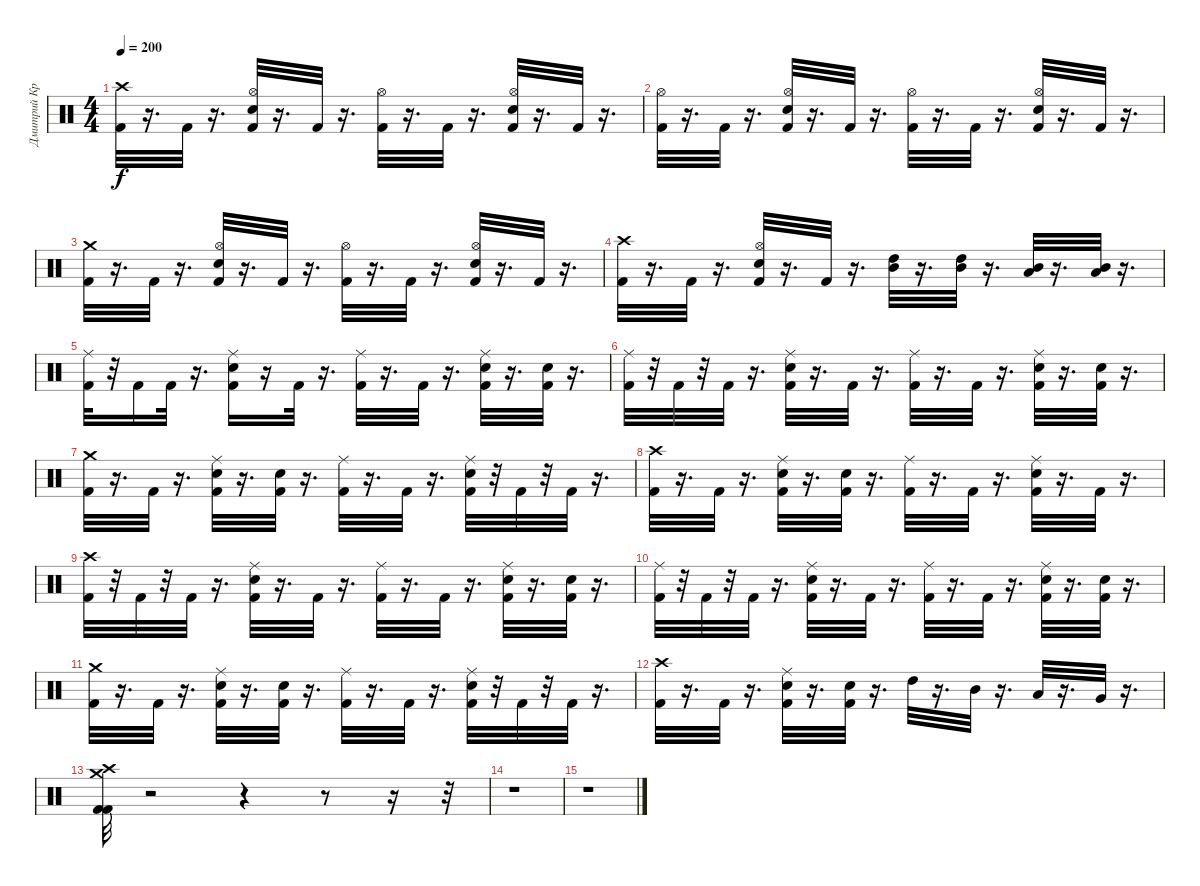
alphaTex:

\track ("Дмитрий Кривенков" "Дмитрий Кр") {instrument percussion}
\staff {score}
\articulation defaults
\ts (4 4)
\tempo 200
\clef neutral
\ks c
("Crash high (hit)" "Kick (hit) 2").32{dy f} r.16{d} "Kick (hit) 2".32 r.16{d} ("Hi-Hat (open)" "Electric Snare (hit)" "Kick (hit) 2").32 r.16{d} "Kick (hit) 2".32 r.16{d} ("Hi-Hat (open)" "Kick (hit) 2").32 r.16{d} "Kick (hit) 2".32 r.16{d} ("Hi-Hat (open)" "Electric Snare (hit)" "Kick (hit) 2").32 r.16{d} "Kick (hit) 2".32 r.16{d} |
("Hi-Hat (open)" "Kick (hit) 2").32 r.16{d} "Kick (hit) 2".32 r.16{d} ("Hi-Hat (open)" "Electric Snare (hit)" "Kick (hit) 2").32 r.16{d} "Kick (hit) 2".32 r.16{d} ("Hi-Hat (open)" "Kick (hit) 2").32 r.16{d} "Kick (hit) 2".32 r.16{d} ("Hi-Hat (open)" "Electric Snare (hit)" "Kick (hit) 2").32 r.16{d} "Kick (hit) 2".32 r.16{d} |
("Kick (hit) 2" "Crash medium (hit)").32 r.16{d} "Kick (hit) 2".32 r.16{d} ("Kick (hit) 2" "Electric Snare (hit)" "Hi-Hat (open)").32 r.16{d} "Kick (hit) 2".32 r.16{d} ("Kick (hit) 2" "Hi-Hat (open)").32 r.16{d} "Kick (hit) 2".32 r.16{d} ("Kick (hit) 2" "Hi-Hat (open)" "Electric Snare (hit)").32 r.16{d} "Kick (hit) 2".32 r.16{d} |
("Kick (hit) 2" "Crash high (hit)").32 r.16{d} "Kick (hit) 2".32 r.16{d} ("Kick (hit) 2" "Electric Snare (hit)" "Hi-Hat (open)").32 r.16{d} "Kick (hit) 2".32 r.16{d} ("Mid Tom (hit)" "High Tom (hit)").32 r.16{d} ("Mid Tom (hit)" "High Tom (hit)").32 r.16{d} ("Low Tom (hit)" "Mid Tom (hit)").32 r.16{d} ("Low Tom (hit)" "Mid Tom (hit)").32 r.16{d} |
("Ride (middle)" "Kick (hit) 2").32 r.32 "Kick (hit) 2".16 "Kick (hit) 2".32 r.16{d} ("Ride (middle)" "Electric Snare (hit)" "Kick (hit) 2").16 r.16 "Kick (hit) 2".32 r.16{d} ("Ride (middle)" "Kick (hit) 2").32 r.16{d} "Kick (hit) 2".32 r.16{d} ("Kick (hit) 2" "Ride (middle)" "Electric Snare (hit)").32 r.16{d} ("Kick (hit) 2" "Electric Snare (hit)").32 r.16{d} |
("Ride (middle)" "Kick (hit) 2").32 r.32 "Kick (hit) 2".32 r.32 "Kick (hit) 2".32 r.16{d} ("Ride (middle)" "Electric Snare (hit)" "Kick (hit) 2").32 r.16{d} "Kick (hit) 2".32 r.16{d} ("Ride (middle)" "Kick (hit) 2").32 r.16{d} "Kick (hit) 2".32 r.16{d} ("Ride (middle)" "Electric Snare (hit)" "Kick (hit) 2").32 r.16{d} ("Electric Snare (hit)" "Kick (hit) 2").32 r.16{d} |
("Kick (hit) 2" "Crash medium (hit)").32 r.16{d} "Kick (hit) 2".32 r.16{d} ("Kick (hit) 2" "Electric Snare (hit)" "Ride (middle)").32 r.16{d} ("Electric Snare (hit)" "Kick (hit) 2").32 r.16{d} ("Kick (hit) 2" "Ride (middle)").32 r.16{d} "Kick (hit) 2".32 r.16{d} ("Kick (hit) 2" "Ride (middle)" "Electric Snare (hit)").32 r.32 "Kick (hit) 2".32 r.32 "Kick (hit) 2".32 r.16{d} |
("Kick (hit) 2" "Crash high (hit)").32 r.16{d} "Kick (hit) 2".32 r.16{d} ("Kick (hit) 2" "Electric Snare (hit)" "Ride (middle)").32 r.16{d} ("Electric Snare (hit)" "Kick (hit) 2").32 r.16{d} ("Ride (middle)" "Kick (hit) 2").32 r.16{d} "Kick (hit) 2".32 r.16{d} ("Kick (hit) 2" "Electric Snare (hit)" "Ride (middle)").32 r.16{d} "Kick (hit) 2".32 r.16{d} |
("Crash high (hit)" "Kick (hit) 2").32 r.32 "Kick (hit) 2".32 r.32 "Kick (hit) 2".32 r.16{d} ("Ride (middle)" "Electric Snare (hit)" "Kick (hit) 2").32 r.16{d} "Kick (hit) 2".32 r.16{d} ("Ride (middle)" "Kick (hit) 2").32 r.16{d} "Kick (hit) 2".32 r.16{d} ("Ride (middle)" "Electric Snare (hit)" "Kick (hit) 2").32 r.16{d} ("Electric Snare (hit)" "Kick (hit) 2").32 r.16{d} |
("Ride (middle)" "Kick (hit) 2").32 r.32 "Kick (hit) 2".32 r.32 "Kick (hit) 2".32 r.16{d} ("Ride (middle)" "Electric Snare (hit)" "Kick (hit) 2").32 r.16{d} "Kick (hit) 2".32 r.16{d} ("Ride (middle)" "Kick (hit) 2").32 r.16{d} "Kick (hit) 2".32 r.16{d} ("Ride (middle)" "Electric Snare (hit)" "Kick (hit) 2").32 r.16{d} ("Electric Snare (hit)" "Kick (hit) 2").32 r.16{d} |
("Kick (hit) 2" "Crash medium (hit)").32 r.16{d} "Kick (hit) 2".32 r.16{d} ("Kick (hit) 2" "Electric Snare (hit)" "Ride (middle)").32 r.16{d} ("Electric Snare (hit)" "Kick (hit) 2").32 r.16{d} ("Kick (hit) 2" "Ride (middle)").32 r.16{d} "Kick (hit) 2".32 r.16{d} ("Kick (hit) 2" "Ride (middle)" "Electric Snare (hit)").32 r.32 "Kick (hit) 2".32 r.32 "Kick (hit) 2".32 r.16{d} |
("Kick (hit) 2" "Crash high (hit)").32 r.16{d} "Kick (hit) 2".32 r.16{d} ("Kick (hit) 2" "Electric Snare (hit)" "Ride (middle)").32 r.16{d} ("Electric Snare (hit)" "Kick (hit) 2").32 r.16{d} "High Tom (hit)".32 r.16{d} "Mid Tom (hit)".32 r.16{d} "Low Tom (hit)".32 r.16{d} "Very Low Tom (hit)".32 r.16{d} |
("Crash high (hit)" "Kick (hit) 2" "Crash medium (hit)" "Kick (hit) 2").32 r.2 r.4 r.8 r.16 r.32 |
r.1 |
r.1
